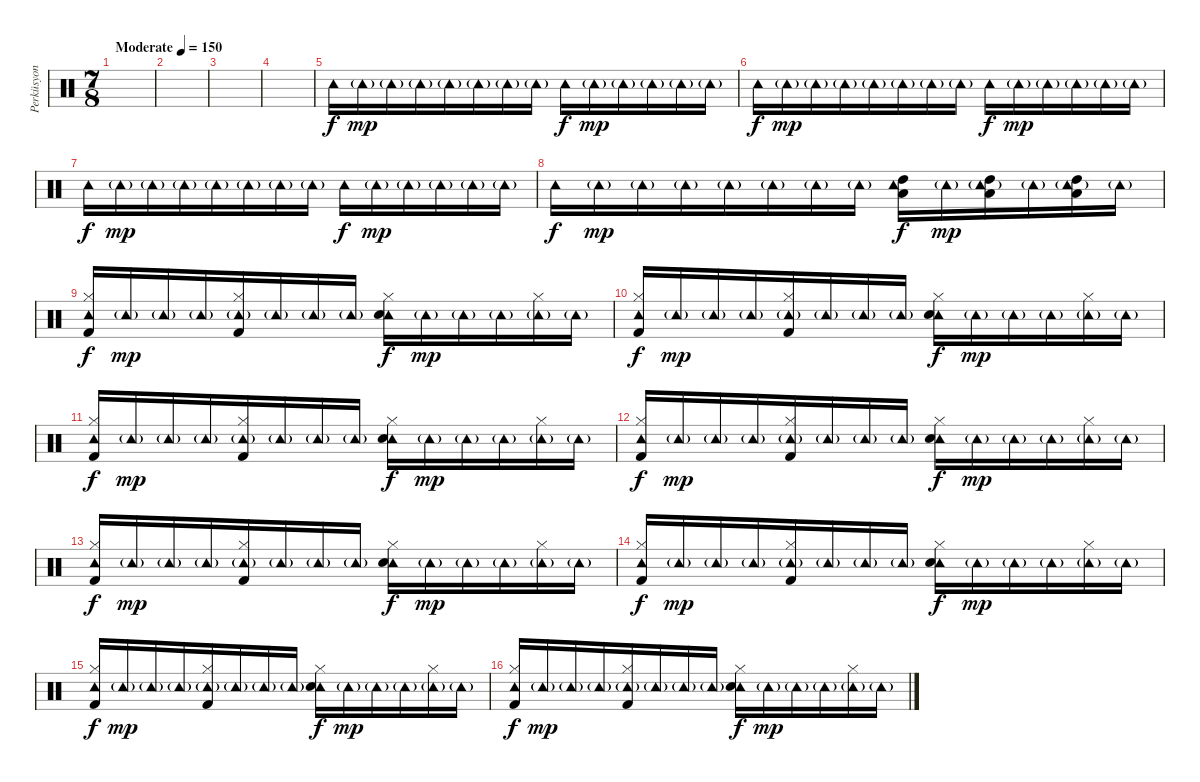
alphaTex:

\track ("Perküsyon" "Perküsyon") {instrument percussion}
\staff {score}
\articulation defaults
\ts (7 8)
\tempo (150 "Moderate")
\clef neutral
\ks c
|
|
|
|
"Tambourine (hit)".16 "Tambourine (hit)"{g}.16{dy mp} "Tambourine (hit)"{g}.16 "Tambourine (hit)"{g}.16 "Tambourine (hit)"{g}.16 "Tambourine (hit)"{g}.16 "Tambourine (hit)"{g}.16 "Tambourine (hit)"{g}.16 "Tambourine (hit)".16{dy f} "Tambourine (hit)"{g}.16{dy mp} "Tambourine (hit)"{g}.16 "Tambourine (hit)"{g}.16 "Tambourine (hit)"{g}.16 "Tambourine (hit)"{g}.16 |
"Tambourine (hit)".16{dy f} "Tambourine (hit)"{g}.16{dy mp} "Tambourine (hit)"{g}.16 "Tambourine (hit)"{g}.16 "Tambourine (hit)"{g}.16 "Tambourine (hit)"{g}.16 "Tambourine (hit)"{g}.16 "Tambourine (hit)"{g}.16 "Tambourine (hit)".16{dy f} "Tambourine (hit)"{g}.16{dy mp} "Tambourine (hit)"{g}.16 "Tambourine (hit)"{g}.16 "Tambourine (hit)"{g}.16 "Tambourine (hit)"{g}.16 |
"Tambourine (hit)".16{dy f} "Tambourine (hit)"{g}.16{dy mp} "Tambourine (hit)"{g}.16 "Tambourine (hit)"{g}.16 "Tambourine (hit)"{g}.16 "Tambourine (hit)"{g}.16 "Tambourine (hit)"{g}.16 "Tambourine (hit)"{g}.16 "Tambourine (hit)".16{dy f} "Tambourine (hit)"{g}.16{dy mp} "Tambourine (hit)"{g}.16 "Tambourine (hit)"{g}.16 "Tambourine (hit)"{g}.16 "Tambourine (hit)"{g}.16 |
"Tambourine (hit)".16{dy f} "Tambourine (hit)"{g}.16{dy mp} "Tambourine (hit)"{g}.16 "Tambourine (hit)"{g}.16 "Tambourine (hit)"{g}.16 "Tambourine (hit)"{g}.16 "Tambourine (hit)"{g}.16 "Tambourine (hit)"{g}.16 ("Tambourine (hit)" "Low Floor Tom (hit)" "High Tom (hit)").16{dy f} "Tambourine (hit)"{g}.16{dy mp} ("Tambourine (hit)"{g} "Low Floor Tom (hit)" "High Tom (hit)").16 "Tambourine (hit)"{g}.16 ("Tambourine (hit)"{g} "Low Floor Tom (hit)" "High Tom (hit)").16 "Tambourine (hit)"{g}.16 |
("Tambourine (hit)" "Hi-Hat (closed)" "Kick (hit) 2").16{dy f} "Tambourine (hit)"{g}.16{dy mp} "Tambourine (hit)"{g}.16 "Tambourine (hit)"{g}.16 ("Tambourine (hit)"{g} "Hi-Hat (closed)" "Kick (hit) 2").16 "Tambourine (hit)"{g}.16 "Tambourine (hit)"{g}.16 "Tambourine (hit)"{g}.16 ("Tambourine (hit)" "Hi-Hat (closed)" "Electric Snare (hit)").16{dy f} "Tambourine (hit)"{g}.16{dy mp} "Tambourine (hit)"{g}.16 "Tambourine (hit)"{g}.16 ("Tambourine (hit)"{g} "Hi-Hat (closed)").16 "Tambourine (hit)"{g}.16 |
("Tambourine (hit)" "Hi-Hat (closed)" "Kick (hit) 2").16{dy f} "Tambourine (hit)"{g}.16{dy mp} "Tambourine (hit)"{g}.16 "Tambourine (hit)"{g}.16 ("Tambourine (hit)"{g} "Hi-Hat (closed)" "Kick (hit) 2").16 "Tambourine (hit)"{g}.16 "Tambourine (hit)"{g}.16 "Tambourine (hit)"{g}.16 ("Tambourine (hit)" "Hi-Hat (closed)" "Electric Snare (hit)").16{dy f} "Tambourine (hit)"{g}.16{dy mp} "Tambourine (hit)"{g}.16 "Tambourine (hit)"{g}.16 ("Tambourine (hit)"{g} "Hi-Hat (closed)").16 "Tambourine (hit)"{g}.16 |
("Tambourine (hit)" "Hi-Hat (closed)" "Kick (hit) 2").16{dy f} "Tambourine (hit)"{g}.16{dy mp} "Tambourine (hit)"{g}.16 "Tambourine (hit)"{g}.16 ("Tambourine (hit)"{g} "Hi-Hat (closed)" "Kick (hit) 2").16 "Tambourine (hit)"{g}.16 "Tambourine (hit)"{g}.16 "Tambourine (hit)"{g}.16 ("Tambourine (hit)" "Hi-Hat (closed)" "Electric Snare (hit)").16{dy f} "Tambourine (hit)"{g}.16{dy mp} "Tambourine (hit)"{g}.16 "Tambourine (hit)"{g}.16 ("Tambourine (hit)"{g} "Hi-Hat (closed)").16 "Tambourine (hit)"{g}.16 |
("Tambourine (hit)" "Hi-Hat (closed)" "Kick (hit) 2").16{dy f} "Tambourine (hit)"{g}.16{dy mp} "Tambourine (hit)"{g}.16 "Tambourine (hit)"{g}.16 ("Tambourine (hit)"{g} "Hi-Hat (closed)" "Kick (hit) 2").16 "Tambourine (hit)"{g}.16 "Tambourine (hit)"{g}.16 "Tambourine (hit)"{g}.16 ("Tambourine (hit)" "Hi-Hat (closed)" "Electric Snare (hit)").16{dy f} "Tambourine (hit)"{g}.16{dy mp} "Tambourine (hit)"{g}.16 "Tambourine (hit)"{g}.16 ("Tambourine (hit)"{g} "Hi-Hat (closed)").16 "Tambourine (hit)"{g}.16 |
("Tambourine (hit)" "Hi-Hat (closed)" "Kick (hit) 2").16{dy f} "Tambourine (hit)"{g}.16{dy mp} "Tambourine (hit)"{g}.16 "Tambourine (hit)"{g}.16 ("Tambourine (hit)"{g} "Hi-Hat (closed)" "Kick (hit) 2").16 "Tambourine (hit)"{g}.16 "Tambourine (hit)"{g}.16 "Tambourine (hit)"{g}.16 ("Tambourine (hit)" "Hi-Hat (closed)" "Electric Snare (hit)").16{dy f} "Tambourine (hit)"{g}.16{dy mp} "Tambourine (hit)"{g}.16 "Tambourine (hit)"{g}.16 ("Tambourine (hit)"{g} "Hi-Hat (closed)").16 "Tambourine (hit)"{g}.16 |
("Tambourine (hit)" "Hi-Hat (closed)" "Kick (hit) 2").16{dy f} "Tambourine (hit)"{g}.16{dy mp} "Tambourine (hit)"{g}.16 "Tambourine (hit)"{g}.16 ("Tambourine (hit)"{g} "Hi-Hat (closed)" "Kick (hit) 2").16 "Tambourine (hit)"{g}.16 "Tambourine (hit)"{g}.16 "Tambourine (hit)"{g}.16 ("Tambourine (hit)" "Hi-Hat (closed)" "Electric Snare (hit)").16{dy f} "Tambourine (hit)"{g}.16{dy mp} "Tambourine (hit)"{g}.16 "Tambourine (hit)"{g}.16 ("Tambourine (hit)"{g} "Hi-Hat (closed)").16 "Tambourine (hit)"{g}.16 |
("Tambourine (hit)" "Hi-Hat (closed)" "Kick (hit) 2").16{dy f} "Tambourine (hit)"{g}.16{dy mp} "Tambourine (hit)"{g}.16 "Tambourine (hit)"{g}.16 ("Tambourine (hit)"{g} "Hi-Hat (closed)" "Kick (hit) 2").16 "Tambourine (hit)"{g}.16 "Tambourine (hit)"{g}.16 "Tambourine (hit)"{g}.16 ("Tambourine (hit)" "Hi-Hat (closed)" "Electric Snare (hit)").16{dy f} "Tambourine (hit)"{g}.16{dy mp} "Tambourine (hit)"{g}.16 "Tambourine (hit)"{g}.16 ("Tambourine (hit)"{g} "Hi-Hat (closed)").16 "Tambourine (hit)"{g}.16 |
("Tambourine (hit)" "Hi-Hat (closed)" "Kick (hit) 2").16{dy f} "Tambourine (hit)"{g}.16{dy mp} "Tambourine (hit)"{g}.16 "Tambourine (hit)"{g}.16 ("Tambourine (hit)"{g} "Hi-Hat (closed)" "Kick (hit) 2").16 "Tambourine (hit)"{g}.16 "Tambourine (hit)"{g}.16 "Tambourine (hit)"{g}.16 ("Tambourine (hit)" "Hi-Hat (closed)" "Electric Snare (hit)").16{dy f} "Tambourine (hit)"{g}.16{dy mp} "Tambourine (hit)"{g}.16 "Tambourine (hit)"{g}.16 ("Tambourine (hit)"{g} "Hi-Hat (closed)").16 "Tambourine (hit)"{g}.16
